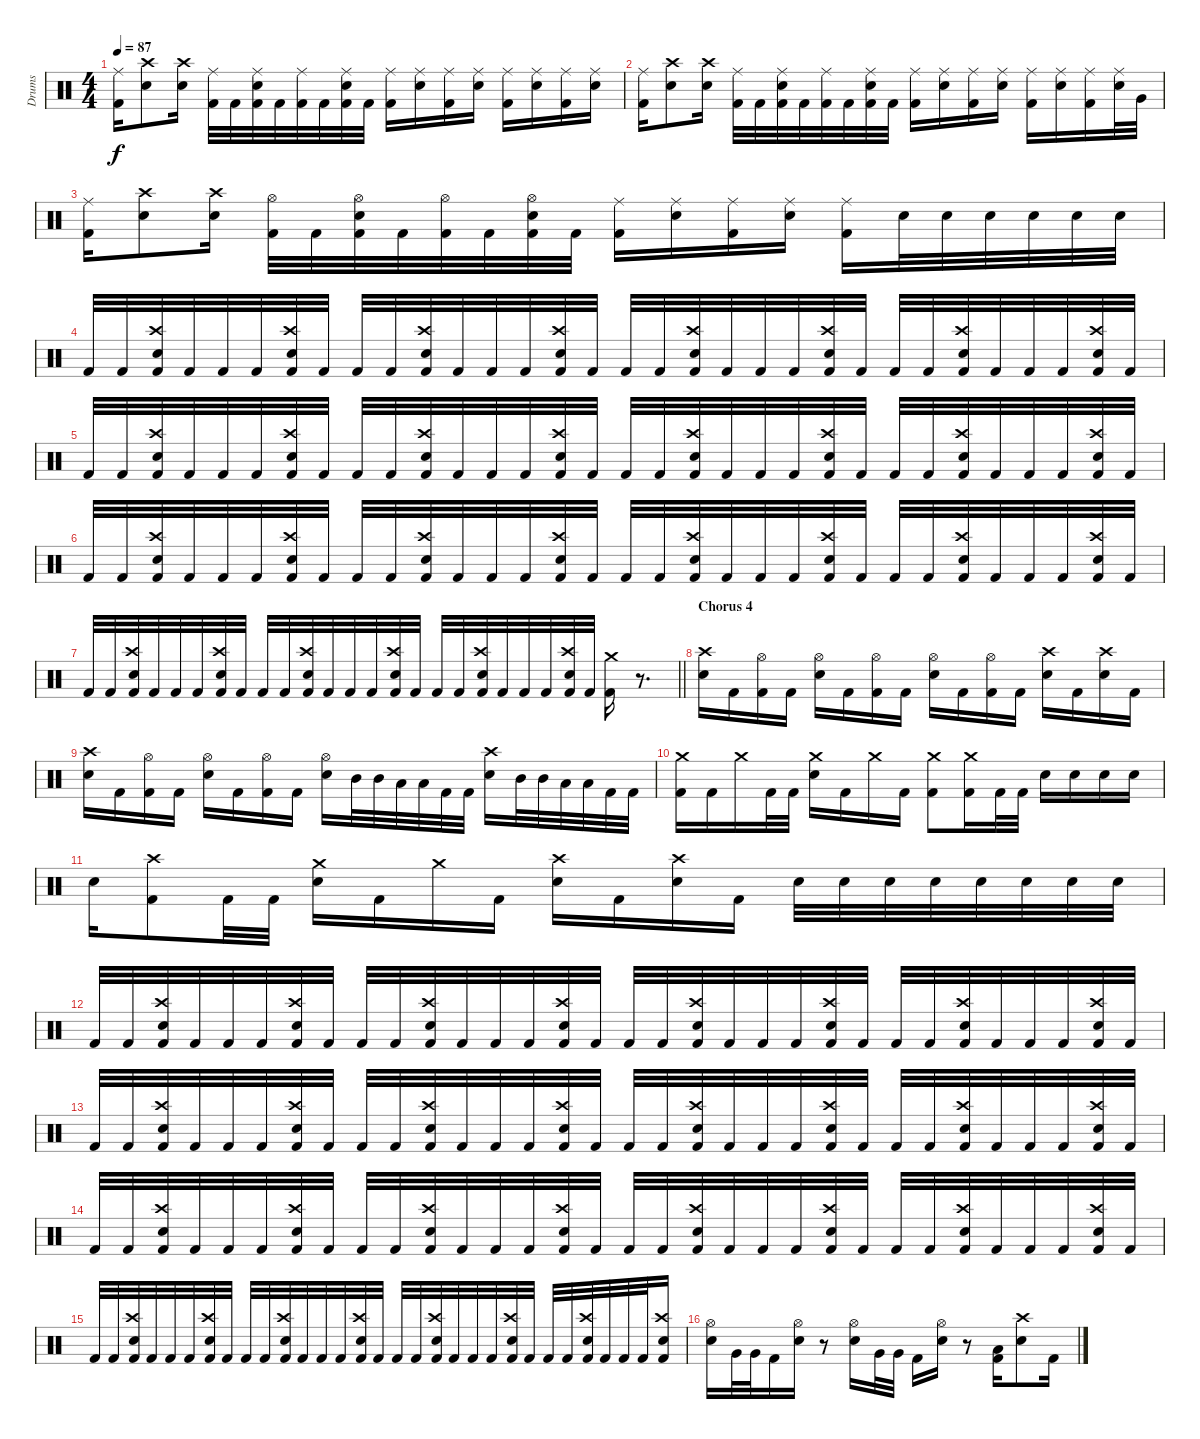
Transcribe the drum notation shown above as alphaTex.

\track ("Drums" "Drums") {instrument percussion}
\staff {score}
\articulation defaults
\ts (4 4)
\tempo 87
\clef neutral
\ks c
("Ride (middle)" "Kick (hit) 2").16{dy f} ("Crash high (hit)" "Electric Snare (hit)").8 ("Crash high (hit)" "Electric Snare (hit)").16 ("Ride (middle)" "Kick (hit) 2").32 "Kick (hit) 2".32 ("Ride (middle)" "Electric Snare (hit)" "Kick (hit) 2").32 "Kick (hit) 2".32 ("Ride (middle)" "Kick (hit) 2").32 "Kick (hit) 2".32 ("Ride (middle)" "Electric Snare (hit)" "Kick (hit) 2").32 "Kick (hit) 2".32 ("Ride (middle)" "Kick (hit) 2").16 ("Ride (middle)" "Electric Snare (hit)").16 ("Ride (middle)" "Kick (hit) 2").16 ("Ride (middle)" "Electric Snare (hit)").16 ("Ride (middle)" "Kick (hit) 2").16 ("Ride (middle)" "Electric Snare (hit)").16 ("Ride (middle)" "Kick (hit) 2").16 ("Ride (middle)" "Electric Snare (hit)").16 |
("Ride (middle)" "Kick (hit) 2").16 ("Crash high (hit)" "Electric Snare (hit)").8 ("Crash high (hit)" "Electric Snare (hit)").16 ("Ride (middle)" "Kick (hit) 2").32 "Kick (hit) 2".32 ("Ride (middle)" "Electric Snare (hit)" "Kick (hit) 2").32 "Kick (hit) 2".32 ("Ride (middle)" "Kick (hit) 2").32 "Kick (hit) 2".32 ("Ride (middle)" "Electric Snare (hit)" "Kick (hit) 2").32 "Kick (hit) 2".32 ("Ride (middle)" "Kick (hit) 2").16 ("Ride (middle)" "Electric Snare (hit)").16 ("Ride (middle)" "Kick (hit) 2").16 ("Ride (middle)" "Electric Snare (hit)").16 ("Ride (middle)" "Kick (hit) 2").16 ("Ride (middle)" "Electric Snare (hit)").16 ("Ride (middle)" "Kick (hit) 2").16 ("Ride (middle)" "Electric Snare (hit)").32 "Very Low Tom (hit)".32 |
("Ride (middle)" "Kick (hit) 2").16 ("Crash high (hit)" "Electric Snare (hit)").8 ("Crash high (hit)" "Electric Snare (hit)").16 ("Hi-Hat (open)" "Kick (hit) 2").32 "Kick (hit) 2".32 ("Hi-Hat (open)" "Electric Snare (hit)" "Kick (hit) 2").32 "Kick (hit) 2".32 ("Hi-Hat (open)" "Kick (hit) 2").32 "Kick (hit) 2".32 ("Hi-Hat (open)" "Electric Snare (hit)" "Kick (hit) 2").32 "Kick (hit) 2".32 ("Ride (middle)" "Kick (hit) 2").16 ("Ride (middle)" "Electric Snare (hit)").16 ("Ride (middle)" "Kick (hit) 2").16 ("Ride (middle)" "Electric Snare (hit)").16 ("Ride (middle)" "Kick (hit) 2").16 "Electric Snare (hit)".32 "Electric Snare (hit)".32 "Electric Snare (hit)".32 "Electric Snare (hit)".32 "Electric Snare (hit)".32 "Electric Snare (hit)".32 |
"Kick (hit) 2".32 "Kick (hit) 2".32 ("Crash high (hit)" "Electric Snare (hit)" "Kick (hit) 2").32 "Kick (hit) 2".32 "Kick (hit) 2".32 "Kick (hit) 2".32 ("Crash high (hit)" "Electric Snare (hit)" "Kick (hit) 2").32 "Kick (hit) 2".32 "Kick (hit) 2".32 "Kick (hit) 2".32 ("Crash high (hit)" "Electric Snare (hit)" "Kick (hit) 2").32 "Kick (hit) 2".32 "Kick (hit) 2".32 "Kick (hit) 2".32 ("Crash high (hit)" "Electric Snare (hit)" "Kick (hit) 2").32 "Kick (hit) 2".32 "Kick (hit) 2".32 "Kick (hit) 2".32 ("Crash high (hit)" "Electric Snare (hit)" "Kick (hit) 2").32 "Kick (hit) 2".32 "Kick (hit) 2".32 "Kick (hit) 2".32 ("Crash high (hit)" "Electric Snare (hit)" "Kick (hit) 2").32 "Kick (hit) 2".32 "Kick (hit) 2".32 "Kick (hit) 2".32 ("Crash high (hit)" "Electric Snare (hit)" "Kick (hit) 2").32 "Kick (hit) 2".32 "Kick (hit) 2".32 "Kick (hit) 2".32 ("Crash high (hit)" "Electric Snare (hit)" "Kick (hit) 2").32 "Kick (hit) 2".32 |
"Kick (hit) 2".32 "Kick (hit) 2".32 ("Crash high (hit)" "Electric Snare (hit)" "Kick (hit) 2").32 "Kick (hit) 2".32 "Kick (hit) 2".32 "Kick (hit) 2".32 ("Crash high (hit)" "Electric Snare (hit)" "Kick (hit) 2").32 "Kick (hit) 2".32 "Kick (hit) 2".32 "Kick (hit) 2".32 ("Crash high (hit)" "Electric Snare (hit)" "Kick (hit) 2").32 "Kick (hit) 2".32 "Kick (hit) 2".32 "Kick (hit) 2".32 ("Crash high (hit)" "Electric Snare (hit)" "Kick (hit) 2").32 "Kick (hit) 2".32 "Kick (hit) 2".32 "Kick (hit) 2".32 ("Crash high (hit)" "Electric Snare (hit)" "Kick (hit) 2").32 "Kick (hit) 2".32 "Kick (hit) 2".32 "Kick (hit) 2".32 ("Crash high (hit)" "Electric Snare (hit)" "Kick (hit) 2").32 "Kick (hit) 2".32 "Kick (hit) 2".32 "Kick (hit) 2".32 ("Crash high (hit)" "Electric Snare (hit)" "Kick (hit) 2").32 "Kick (hit) 2".32 "Kick (hit) 2".32 "Kick (hit) 2".32 ("Crash high (hit)" "Electric Snare (hit)" "Kick (hit) 2").32 "Kick (hit) 2".32 |
"Kick (hit) 2".32 "Kick (hit) 2".32 ("Crash high (hit)" "Electric Snare (hit)" "Kick (hit) 2").32 "Kick (hit) 2".32 "Kick (hit) 2".32 "Kick (hit) 2".32 ("Crash high (hit)" "Electric Snare (hit)" "Kick (hit) 2").32 "Kick (hit) 2".32 "Kick (hit) 2".32 "Kick (hit) 2".32 ("Crash high (hit)" "Electric Snare (hit)" "Kick (hit) 2").32 "Kick (hit) 2".32 "Kick (hit) 2".32 "Kick (hit) 2".32 ("Crash high (hit)" "Electric Snare (hit)" "Kick (hit) 2").32 "Kick (hit) 2".32 "Kick (hit) 2".32 "Kick (hit) 2".32 ("Crash high (hit)" "Electric Snare (hit)" "Kick (hit) 2").32 "Kick (hit) 2".32 "Kick (hit) 2".32 "Kick (hit) 2".32 ("Crash high (hit)" "Electric Snare (hit)" "Kick (hit) 2").32 "Kick (hit) 2".32 "Kick (hit) 2".32 "Kick (hit) 2".32 ("Crash high (hit)" "Electric Snare (hit)" "Kick (hit) 2").32 "Kick (hit) 2".32 "Kick (hit) 2".32 "Kick (hit) 2".32 ("Crash high (hit)" "Electric Snare (hit)" "Kick (hit) 2").32 "Kick (hit) 2".32 |
\barLineRight lightlight "Kick (hit) 2".32 "Kick (hit) 2".32
("Crash high (hit)" "Electric Snare (hit)" "Kick (hit) 2").32 "Kick (hit) 2".32 "Kick (hit) 2".32 "Kick (hit) 2".32 ("Crash high (hit)" "Electric Snare (hit)" "Kick (hit) 2").32 "Kick (hit) 2".32 "Kick (hit) 2".32 "Kick (hit) 2".32 ("Crash high (hit)" "Electric Snare (hit)" "Kick (hit) 2").32 "Kick (hit) 2".32 "Kick (hit) 2".32 "Kick (hit) 2".32 ("Crash high (hit)" "Electric Snare (hit)" "Kick (hit) 2").32 "Kick (hit) 2".32 "Kick (hit) 2".32 "Kick (hit) 2".32 ("Crash high (hit)" "Electric Snare (hit)" "Kick (hit) 2").32 "Kick (hit) 2".32 "Kick (hit) 2".32 "Kick (hit) 2".32 ("Crash high (hit)" "Electric Snare (hit)" "Kick (hit) 2").32 "Kick (hit) 2".32 ("Crash medium (hit)" "Kick (hit) 2").16 r.8{d} |
\section ("" "Chorus 4")
("Crash high (hit)" "Electric Snare (hit)").16 "Kick (hit) 2".16 ("Hi-Hat (open)" "Kick (hit) 2").16 "Kick (hit) 2".16 ("Hi-Hat (open)" "Electric Snare (hit)").16 "Kick (hit) 2".16 ("Hi-Hat (open)" "Kick (hit) 2").16 "Kick (hit) 2".16 ("Hi-Hat (open)" "Electric Snare (hit)").16 "Kick (hit) 2".16 ("Hi-Hat (open)" "Kick (hit) 2").16 "Kick (hit) 2".16 ("Crash high (hit)" "Electric Snare (hit)").16 "Kick (hit) 2".16 ("Crash high (hit)" "Electric Snare (hit)").16 "Kick (hit) 2".16 |
("Crash high (hit)" "Electric Snare (hit)").16 "Kick (hit) 2".16 ("Hi-Hat (open)" "Kick (hit) 2").16 "Kick (hit) 2".16 ("Hi-Hat (open)" "Electric Snare (hit)").16 "Kick (hit) 2".16 ("Hi-Hat (open)" "Kick (hit) 2").16 "Kick (hit) 2".16 ("Hi-Hat (open)" "Electric Snare (hit)").16 "Mid Tom (hit)".32 "Mid Tom (hit)".32 "Low Tom (hit)".32 "Low Tom (hit)".32 "Kick (hit) 2".32 "Kick (hit) 2".32 ("Crash high (hit)" "Electric Snare (hit)").16 "Mid Tom (hit)".32 "Mid Tom (hit)".32 "Low Tom (hit)".32 "Low Tom (hit)".32 "Kick (hit) 2".32 "Kick (hit) 2".32 |
("Crash medium (hit)" "Kick (hit) 2").16 "Kick (hit) 2".16 "Crash medium (hit)".16 "Kick (hit) 2".32 "Kick (hit) 2".32 ("Crash medium (hit)" "Electric Snare (hit)").16 "Kick (hit) 2".16 "Crash medium (hit)".16 "Kick (hit) 2".16 ("Crash medium (hit)" "Kick (hit) 2").8 ("Crash medium (hit)" "Kick (hit) 2").16 "Kick (hit) 2".32 "Kick (hit) 2".32 "Electric Snare (hit)".16 "Electric Snare (hit)".16 "Electric Snare (hit)".16 "Electric Snare (hit)".16 |
"Electric Snare (hit)".16 ("Crash high (hit)" "Kick (hit) 2").8 "Kick (hit) 2".32 "Kick (hit) 2".32 ("Crash medium (hit)" "Electric Snare (hit)").16 "Kick (hit) 2".16 "Crash medium (hit)".16 "Kick (hit) 2".16 ("Crash high (hit)" "Electric Snare (hit)").16 "Kick (hit) 2".16 ("Crash high (hit)" "Electric Snare (hit)").16 "Kick (hit) 2".16 "Electric Snare (hit)".32 "Electric Snare (hit)".32 "Electric Snare (hit)".32 "Electric Snare (hit)".32 "Electric Snare (hit)".32 "Electric Snare (hit)".32 "Electric Snare (hit)".32 "Electric Snare (hit)".32 |
"Kick (hit) 2".32 "Kick (hit) 2".32 ("Crash high (hit)" "Electric Snare (hit)" "Kick (hit) 2").32 "Kick (hit) 2".32 "Kick (hit) 2".32 "Kick (hit) 2".32 ("Crash high (hit)" "Electric Snare (hit)" "Kick (hit) 2").32 "Kick (hit) 2".32 "Kick (hit) 2".32 "Kick (hit) 2".32 ("Crash high (hit)" "Electric Snare (hit)" "Kick (hit) 2").32 "Kick (hit) 2".32 "Kick (hit) 2".32 "Kick (hit) 2".32 ("Crash high (hit)" "Electric Snare (hit)" "Kick (hit) 2").32 "Kick (hit) 2".32 "Kick (hit) 2".32 "Kick (hit) 2".32 ("Crash high (hit)" "Electric Snare (hit)" "Kick (hit) 2").32 "Kick (hit) 2".32 "Kick (hit) 2".32 "Kick (hit) 2".32 ("Crash high (hit)" "Electric Snare (hit)" "Kick (hit) 2").32 "Kick (hit) 2".32 "Kick (hit) 2".32 "Kick (hit) 2".32 ("Crash high (hit)" "Electric Snare (hit)" "Kick (hit) 2").32 "Kick (hit) 2".32 "Kick (hit) 2".32 "Kick (hit) 2".32 ("Crash high (hit)" "Electric Snare (hit)" "Kick (hit) 2").32 "Kick (hit) 2".32 |
"Kick (hit) 2".32 "Kick (hit) 2".32 ("Crash high (hit)" "Electric Snare (hit)" "Kick (hit) 2").32 "Kick (hit) 2".32 "Kick (hit) 2".32 "Kick (hit) 2".32 ("Crash high (hit)" "Electric Snare (hit)" "Kick (hit) 2").32 "Kick (hit) 2".32 "Kick (hit) 2".32 "Kick (hit) 2".32 ("Crash high (hit)" "Electric Snare (hit)" "Kick (hit) 2").32 "Kick (hit) 2".32 "Kick (hit) 2".32 "Kick (hit) 2".32 ("Crash high (hit)" "Electric Snare (hit)" "Kick (hit) 2").32 "Kick (hit) 2".32 "Kick (hit) 2".32 "Kick (hit) 2".32 ("Crash high (hit)" "Electric Snare (hit)" "Kick (hit) 2").32 "Kick (hit) 2".32 "Kick (hit) 2".32 "Kick (hit) 2".32 ("Crash high (hit)" "Electric Snare (hit)" "Kick (hit) 2").32 "Kick (hit) 2".32 "Kick (hit) 2".32 "Kick (hit) 2".32 ("Crash high (hit)" "Electric Snare (hit)" "Kick (hit) 2").32 "Kick (hit) 2".32 "Kick (hit) 2".32 "Kick (hit) 2".32 ("Crash high (hit)" "Electric Snare (hit)" "Kick (hit) 2").32 "Kick (hit) 2".32 |
"Kick (hit) 2".32 "Kick (hit) 2".32 ("Crash high (hit)" "Electric Snare (hit)" "Kick (hit) 2").32 "Kick (hit) 2".32 "Kick (hit) 2".32 "Kick (hit) 2".32 ("Crash high (hit)" "Electric Snare (hit)" "Kick (hit) 2").32 "Kick (hit) 2".32 "Kick (hit) 2".32 "Kick (hit) 2".32 ("Crash high (hit)" "Electric Snare (hit)" "Kick (hit) 2").32 "Kick (hit) 2".32 "Kick (hit) 2".32 "Kick (hit) 2".32 ("Crash high (hit)" "Electric Snare (hit)" "Kick (hit) 2").32 "Kick (hit) 2".32 "Kick (hit) 2".32 "Kick (hit) 2".32 ("Crash high (hit)" "Electric Snare (hit)" "Kick (hit) 2").32 "Kick (hit) 2".32 "Kick (hit) 2".32 "Kick (hit) 2".32 ("Crash high (hit)" "Electric Snare (hit)" "Kick (hit) 2").32 "Kick (hit) 2".32 "Kick (hit) 2".32 "Kick (hit) 2".32 ("Crash high (hit)" "Electric Snare (hit)" "Kick (hit) 2").32 "Kick (hit) 2".32 "Kick (hit) 2".32 "Kick (hit) 2".32 ("Crash high (hit)" "Electric Snare (hit)" "Kick (hit) 2").32 "Kick (hit) 2".32 |
"Kick (hit) 2".32 "Kick (hit) 2".32 ("Crash high (hit)" "Electric Snare (hit)" "Kick (hit) 2").32 "Kick (hit) 2".32 "Kick (hit) 2".32 "Kick (hit) 2".32 ("Crash high (hit)" "Electric Snare (hit)" "Kick (hit) 2").32 "Kick (hit) 2".32 "Kick (hit) 2".32 "Kick (hit) 2".32 ("Crash high (hit)" "Electric Snare (hit)" "Kick (hit) 2").32 "Kick (hit) 2".32 "Kick (hit) 2".32 "Kick (hit) 2".32 ("Crash high (hit)" "Electric Snare (hit)" "Kick (hit) 2").32 "Kick (hit) 2".32 "Kick (hit) 2".32 "Kick (hit) 2".32 ("Crash high (hit)" "Electric Snare (hit)" "Kick (hit) 2").32 "Kick (hit) 2".32 "Kick (hit) 2".32 "Kick (hit) 2".32 ("Crash high (hit)" "Electric Snare (hit)" "Kick (hit) 2").32 "Kick (hit) 2".32 "Kick (hit) 2".32 "Kick (hit) 2".32 ("Crash high (hit)" "Electric Snare (hit)" "Kick (hit) 2").32 "Kick (hit) 2".32 "Kick (hit) 2".32 "Kick (hit) 2".32 ("Crash high (hit)" "Electric Snare (hit)" "Kick (hit) 2").16 |
("Hi-Hat (open)" "Electric Snare (hit)").16 "Very Low Tom (hit)".32 "Very Low Tom (hit)".32 "Kick (hit) 2".16 ("Hi-Hat (open)" "Electric Snare (hit)").16 r.8 ("Hi-Hat (open)" "Electric Snare (hit)").16 "Very Low Tom (hit)".32 "Very Low Tom (hit)".32 "Kick (hit) 2".16 ("Hi-Hat (open)" "Electric Snare (hit)").16 r.8 ("Low Tom (hit)" "Kick (hit) 2").16 ("Crash high (hit)" "Electric Snare (hit)").8 "Kick (hit) 2".16
